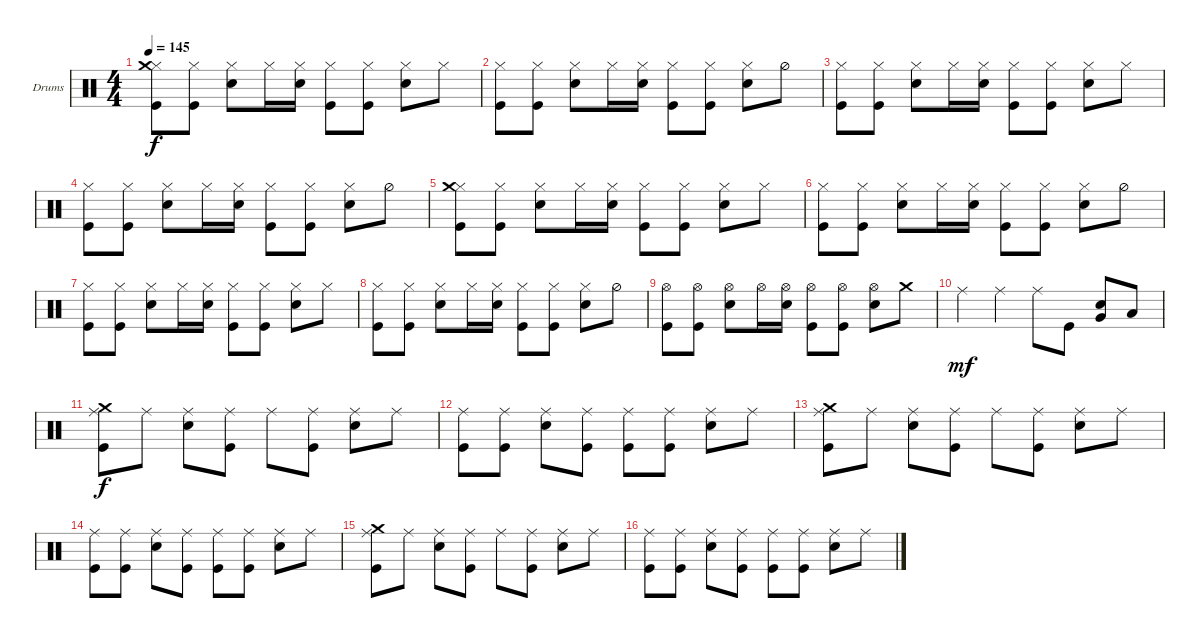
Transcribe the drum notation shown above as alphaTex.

\defaultSystemsLayout 4
\bracketExtendMode groupsimilarinstruments
\firstSystemTrackNameOrientation horizontal
\otherSystemsTrackNameOrientation horizontal
\track ("Drumkit" "Drums") {instrument percussion}
\staff {score}
\articulation defaults
\ts (4 4)
\tempo 145
\clef neutral
\ks c
("Kick (hit)" "Hi-Hat (closed)" "Crash medium (hit)").8{dy f} ("Kick (hit)" "Hi-Hat (closed)").8 ("Snare (hit) 2" "Hi-Hat (closed)").8 "Hi-Hat (closed)".16 ("Snare (hit) 2" "Hi-Hat (closed)").16 ("Kick (hit)" "Hi-Hat (closed)").8 ("Kick (hit)" "Hi-Hat (closed)").8 ("Snare (hit) 2" "Hi-Hat (closed)").8 "Hi-Hat (closed)".8 |
("Kick (hit)" "Hi-Hat (closed)").8 ("Kick (hit)" "Hi-Hat (closed)").8 ("Snare (hit) 2" "Hi-Hat (closed)").8 "Hi-Hat (closed)".16 ("Snare (hit) 2" "Hi-Hat (closed)").16 ("Kick (hit)" "Hi-Hat (closed)").8 ("Kick (hit)" "Hi-Hat (closed)").8 ("Snare (hit) 2" "Hi-Hat (closed)").8 "Hi-Hat (half)".8 |
("Kick (hit)" "Hi-Hat (closed)").8 ("Kick (hit)" "Hi-Hat (closed)").8 ("Snare (hit) 2" "Hi-Hat (closed)").8 "Hi-Hat (closed)".16 ("Snare (hit) 2" "Hi-Hat (closed)").16 ("Kick (hit)" "Hi-Hat (closed)").8 ("Kick (hit)" "Hi-Hat (closed)").8 ("Snare (hit) 2" "Hi-Hat (closed)").8 "Hi-Hat (closed)".8 |
("Kick (hit)" "Hi-Hat (closed)").8 ("Kick (hit)" "Hi-Hat (closed)").8 ("Snare (hit) 2" "Hi-Hat (closed)").8 "Hi-Hat (closed)".16 ("Snare (hit) 2" "Hi-Hat (closed)").16 ("Kick (hit)" "Hi-Hat (closed)").8 ("Kick (hit)" "Hi-Hat (closed)").8 ("Snare (hit) 2" "Hi-Hat (closed)").8 "Hi-Hat (half)".8 |
("Kick (hit)" "Hi-Hat (closed)" "Crash medium (hit)").8 ("Kick (hit)" "Hi-Hat (closed)").8 ("Snare (hit) 2" "Hi-Hat (closed)").8 "Hi-Hat (closed)".16 ("Snare (hit) 2" "Hi-Hat (closed)").16 ("Kick (hit)" "Hi-Hat (closed)").8 ("Kick (hit)" "Hi-Hat (closed)").8 ("Snare (hit) 2" "Hi-Hat (closed)").8 "Hi-Hat (closed)".8 |
("Kick (hit)" "Hi-Hat (closed)").8 ("Kick (hit)" "Hi-Hat (closed)").8 ("Snare (hit) 2" "Hi-Hat (closed)").8 "Hi-Hat (closed)".16 ("Snare (hit) 2" "Hi-Hat (closed)").16 ("Kick (hit)" "Hi-Hat (closed)").8 ("Kick (hit)" "Hi-Hat (closed)").8 ("Snare (hit) 2" "Hi-Hat (closed)").8 "Hi-Hat (half)".8 |
("Kick (hit)" "Hi-Hat (closed)").8 ("Kick (hit)" "Hi-Hat (closed)").8 ("Snare (hit) 2" "Hi-Hat (closed)").8 "Hi-Hat (closed)".16 ("Snare (hit) 2" "Hi-Hat (closed)").16 ("Kick (hit)" "Hi-Hat (closed)").8 ("Kick (hit)" "Hi-Hat (closed)").8 ("Snare (hit) 2" "Hi-Hat (closed)").8 "Hi-Hat (closed)".8 |
("Kick (hit)" "Hi-Hat (closed)").8 ("Kick (hit)" "Hi-Hat (closed)").8 ("Snare (hit) 2" "Hi-Hat (closed)").8 "Hi-Hat (closed)".16 ("Snare (hit) 2" "Hi-Hat (closed)").16 ("Kick (hit)" "Hi-Hat (closed)").8 ("Kick (hit)" "Hi-Hat (closed)").8 ("Snare (hit) 2" "Hi-Hat (closed)").8 "Hi-Hat (half)".8 |
("Kick (hit)" "Hi-Hat (open)").8 ("Kick (hit)" "Hi-Hat (open)").8 ("Snare (hit) 2" "Hi-Hat (open)").8 "Hi-Hat (open)".16 ("Snare (hit) 2" "Hi-Hat (open)").16 ("Kick (hit)" "Hi-Hat (open)").8 ("Kick (hit)" "Hi-Hat (open)").8 ("Snare (hit) 2" "Hi-Hat (open)").8 "Crash medium (hit)".8 |
"Ride (middle)".4{dy mf} "Ride (middle)".4 "Ride (middle)".8 "Kick (hit)".8 ("Snare (hit) 2" "Very Low Tom (hit)").8 "Low Tom (hit)".8 |
("Kick (hit)" "Ride (middle)" "Crash medium (hit)").8{dy f} "Ride (middle)".8 ("Snare (hit) 2" "Ride (middle)").8 ("Kick (hit)" "Ride (middle)").8 "Ride (middle)".8 ("Kick (hit)" "Ride (middle)").8 ("Snare (hit) 2" "Ride (middle)").8 "Ride (middle)".8 |
("Kick (hit)" "Ride (middle)").8 ("Kick (hit)" "Ride (middle)").8 ("Snare (hit) 2" "Ride (middle)").8 ("Kick (hit)" "Ride (middle)").8 ("Kick (hit)" "Ride (middle)").8 ("Kick (hit)" "Ride (middle)").8 ("Snare (hit) 2" "Ride (middle)").8 "Ride (middle)".8 |
("Crash medium (hit)" "Kick (hit)" "Ride (middle)").8 "Ride (middle)".8 ("Snare (hit) 2" "Ride (middle)").8 ("Kick (hit)" "Ride (middle)").8 "Ride (middle)".8 ("Kick (hit)" "Ride (middle)").8 ("Snare (hit) 2" "Ride (middle)").8 "Ride (middle)".8 |
("Kick (hit)" "Ride (middle)").8 ("Kick (hit)" "Ride (middle)").8 ("Snare (hit) 2" "Ride (middle)").8 ("Kick (hit)" "Ride (middle)").8 ("Kick (hit)" "Ride (middle)").8 ("Kick (hit)" "Ride (middle)").8 ("Snare (hit) 2" "Ride (middle)").8 "Ride (middle)".8 |
("Kick (hit)" "Ride (middle)" "Crash medium (hit)").8 "Ride (middle)".8 ("Snare (hit) 2" "Ride (middle)").8 ("Kick (hit)" "Ride (middle)").8 "Ride (middle)".8 ("Kick (hit)" "Ride (middle)").8 ("Snare (hit) 2" "Ride (middle)").8 "Ride (middle)".8 |
("Kick (hit)" "Ride (middle)").8 ("Kick (hit)" "Ride (middle)").8 ("Snare (hit) 2" "Ride (middle)").8 ("Kick (hit)" "Ride (middle)").8 ("Kick (hit)" "Ride (middle)").8 ("Kick (hit)" "Ride (middle)").8 ("Snare (hit) 2" "Ride (middle)").8 "Ride (middle)".8
